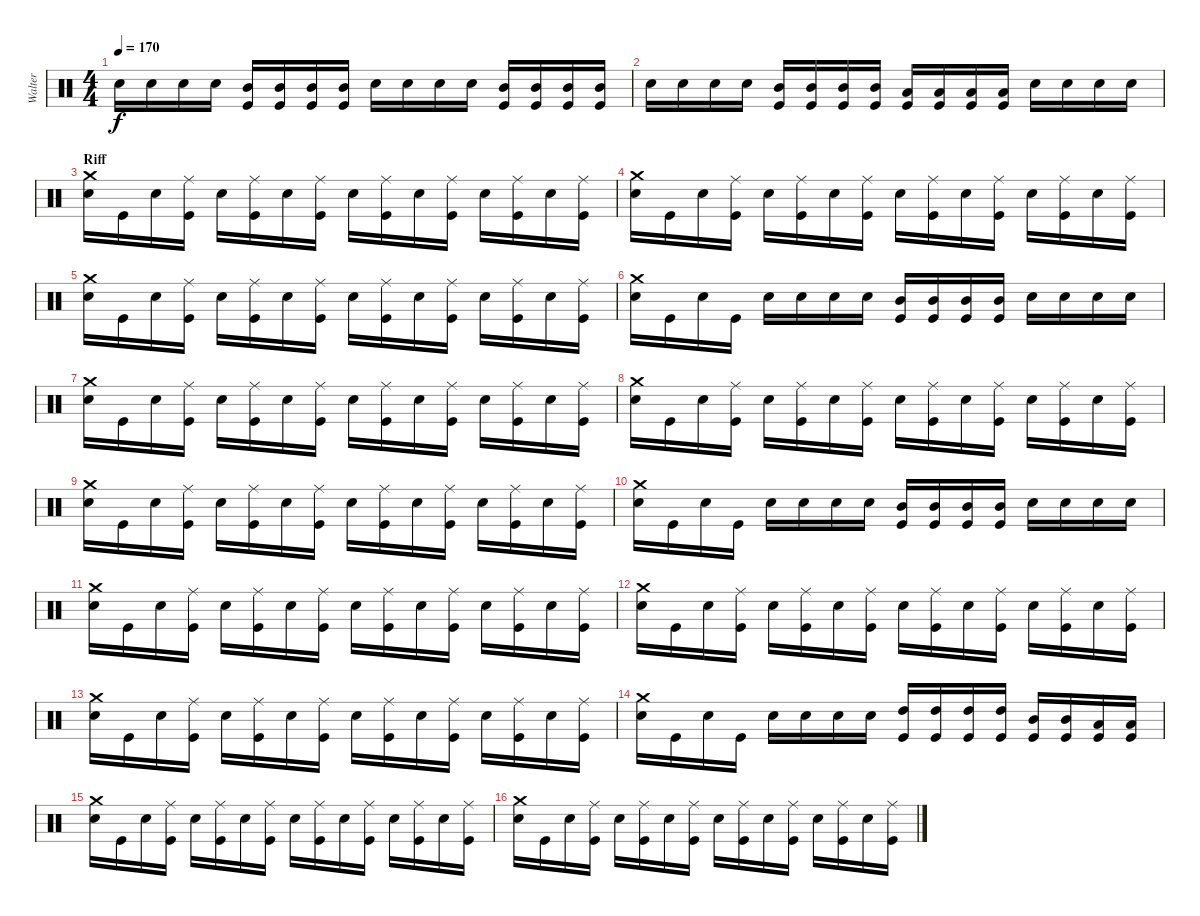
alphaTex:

\track ("Walter" "Walter") {instrument percussion}
\staff {score}
\articulation defaults
\ts (4 4)
\tempo 170
\clef neutral
\ks c "Electric Snare (hit)".16{dy f} "Electric Snare (hit)".16 "Electric Snare (hit)".16 "Electric Snare (hit)".16
("Mid Tom (hit)" "Kick (hit)").16 ("Mid Tom (hit)" "Kick (hit)").16 ("Mid Tom (hit)" "Kick (hit)").16 ("Mid Tom (hit)" "Kick (hit)").16 "Electric Snare (hit)".16 "Electric Snare (hit)".16 "Electric Snare (hit)".16 "Electric Snare (hit)".16 ("Mid Tom (hit)" "Kick (hit)").16 ("Mid Tom (hit)" "Kick (hit)").16 ("Mid Tom (hit)" "Kick (hit)").16 ("Mid Tom (hit)" "Kick (hit)").16 |
"Electric Snare (hit)".16 "Electric Snare (hit)".16 "Electric Snare (hit)".16 "Electric Snare (hit)".16 ("Mid Tom (hit)" "Kick (hit)").16 ("Mid Tom (hit)" "Kick (hit)").16 ("Mid Tom (hit)" "Kick (hit)").16 ("Mid Tom (hit)" "Kick (hit)").16 ("Low Tom (hit)" "Kick (hit)").16 ("Low Tom (hit)" "Kick (hit)").16 ("Low Tom (hit)" "Kick (hit)").16 ("Low Tom (hit)" "Kick (hit)").16 "Electric Snare (hit)".16 "Electric Snare (hit)".16 "Electric Snare (hit)".16 "Electric Snare (hit)".16 |
\section ("" "Riff")
("Crash medium (hit)" "Electric Snare (hit)").16 "Kick (hit)".16 "Electric Snare (hit)".16 ("Ride (middle)" "Kick (hit)").16 "Electric Snare (hit)".16 ("Ride (middle)" "Kick (hit)").16 "Electric Snare (hit)".16 ("Ride (middle)" "Kick (hit)").16 "Electric Snare (hit)".16 ("Ride (middle)" "Kick (hit)").16 "Electric Snare (hit)".16 ("Ride (middle)" "Kick (hit)").16 "Electric Snare (hit)".16 ("Ride (middle)" "Kick (hit)").16 "Electric Snare (hit)".16 ("Ride (middle)" "Kick (hit)").16 |
("Crash medium (hit)" "Electric Snare (hit)").16 "Kick (hit)".16 "Electric Snare (hit)".16 ("Ride (middle)" "Kick (hit)").16 "Electric Snare (hit)".16 ("Ride (middle)" "Kick (hit)").16 "Electric Snare (hit)".16 ("Ride (middle)" "Kick (hit)").16 "Electric Snare (hit)".16 ("Ride (middle)" "Kick (hit)").16 "Electric Snare (hit)".16 ("Ride (middle)" "Kick (hit)").16 "Electric Snare (hit)".16 ("Ride (middle)" "Kick (hit)").16 "Electric Snare (hit)".16 ("Ride (middle)" "Kick (hit)").16 |
("Crash medium (hit)" "Electric Snare (hit)").16 "Kick (hit)".16 "Electric Snare (hit)".16 ("Ride (middle)" "Kick (hit)").16 "Electric Snare (hit)".16 ("Ride (middle)" "Kick (hit)").16 "Electric Snare (hit)".16 ("Ride (middle)" "Kick (hit)").16 "Electric Snare (hit)".16 ("Ride (middle)" "Kick (hit)").16 "Electric Snare (hit)".16 ("Ride (middle)" "Kick (hit)").16 "Electric Snare (hit)".16 ("Ride (middle)" "Kick (hit)").16 "Electric Snare (hit)".16 ("Ride (middle)" "Kick (hit)").16 |
("Crash medium (hit)" "Electric Snare (hit)").16 "Kick (hit)".16 "Electric Snare (hit)".16 "Kick (hit)".16 "Electric Snare (hit)".16 "Electric Snare (hit)".16 "Electric Snare (hit)".16 "Electric Snare (hit)".16 ("Mid Tom (hit)" "Kick (hit)").16 ("Mid Tom (hit)" "Kick (hit)").16 ("Mid Tom (hit)" "Kick (hit)").16 ("Mid Tom (hit)" "Kick (hit)").16 "Electric Snare (hit)".16 "Electric Snare (hit)".16 "Electric Snare (hit)".16 "Electric Snare (hit)".16 |
("Crash medium (hit)" "Electric Snare (hit)").16 "Kick (hit)".16 "Electric Snare (hit)".16 ("Ride (middle)" "Kick (hit)").16 "Electric Snare (hit)".16 ("Ride (middle)" "Kick (hit)").16 "Electric Snare (hit)".16 ("Ride (middle)" "Kick (hit)").16 "Electric Snare (hit)".16 ("Ride (middle)" "Kick (hit)").16 "Electric Snare (hit)".16 ("Ride (middle)" "Kick (hit)").16 "Electric Snare (hit)".16 ("Ride (middle)" "Kick (hit)").16 "Electric Snare (hit)".16 ("Ride (middle)" "Kick (hit)").16 |
("Crash medium (hit)" "Electric Snare (hit)").16 "Kick (hit)".16 "Electric Snare (hit)".16 ("Ride (middle)" "Kick (hit)").16 "Electric Snare (hit)".16 ("Ride (middle)" "Kick (hit)").16 "Electric Snare (hit)".16 ("Ride (middle)" "Kick (hit)").16 "Electric Snare (hit)".16 ("Ride (middle)" "Kick (hit)").16 "Electric Snare (hit)".16 ("Ride (middle)" "Kick (hit)").16 "Electric Snare (hit)".16 ("Ride (middle)" "Kick (hit)").16 "Electric Snare (hit)".16 ("Ride (middle)" "Kick (hit)").16 |
("Crash medium (hit)" "Electric Snare (hit)").16 "Kick (hit)".16 "Electric Snare (hit)".16 ("Ride (middle)" "Kick (hit)").16 "Electric Snare (hit)".16 ("Ride (middle)" "Kick (hit)").16 "Electric Snare (hit)".16 ("Ride (middle)" "Kick (hit)").16 "Electric Snare (hit)".16 ("Ride (middle)" "Kick (hit)").16 "Electric Snare (hit)".16 ("Ride (middle)" "Kick (hit)").16 "Electric Snare (hit)".16 ("Ride (middle)" "Kick (hit)").16 "Electric Snare (hit)".16 ("Ride (middle)" "Kick (hit)").16 |
("Crash medium (hit)" "Electric Snare (hit)").16 "Kick (hit)".16 "Electric Snare (hit)".16 "Kick (hit)".16 "Electric Snare (hit)".16 "Electric Snare (hit)".16 "Electric Snare (hit)".16 "Electric Snare (hit)".16 ("Mid Tom (hit)" "Kick (hit)").16 ("Mid Tom (hit)" "Kick (hit)").16 ("Mid Tom (hit)" "Kick (hit)").16 ("Mid Tom (hit)" "Kick (hit)").16 "Electric Snare (hit)".16 "Electric Snare (hit)".16 "Electric Snare (hit)".16 "Electric Snare (hit)".16 |
("Crash medium (hit)" "Electric Snare (hit)").16 "Kick (hit)".16 "Electric Snare (hit)".16 ("Ride (middle)" "Kick (hit)").16 "Electric Snare (hit)".16 ("Ride (middle)" "Kick (hit)").16 "Electric Snare (hit)".16 ("Ride (middle)" "Kick (hit)").16 "Electric Snare (hit)".16 ("Ride (middle)" "Kick (hit)").16 "Electric Snare (hit)".16 ("Ride (middle)" "Kick (hit)").16 "Electric Snare (hit)".16 ("Ride (middle)" "Kick (hit)").16 "Electric Snare (hit)".16 ("Ride (middle)" "Kick (hit)").16 |
("Crash medium (hit)" "Electric Snare (hit)").16 "Kick (hit)".16 "Electric Snare (hit)".16 ("Ride (middle)" "Kick (hit)").16 "Electric Snare (hit)".16 ("Ride (middle)" "Kick (hit)").16 "Electric Snare (hit)".16 ("Ride (middle)" "Kick (hit)").16 "Electric Snare (hit)".16 ("Ride (middle)" "Kick (hit)").16 "Electric Snare (hit)".16 ("Ride (middle)" "Kick (hit)").16 "Electric Snare (hit)".16 ("Ride (middle)" "Kick (hit)").16 "Electric Snare (hit)".16 ("Ride (middle)" "Kick (hit)").16 |
("Crash medium (hit)" "Electric Snare (hit)").16 "Kick (hit)".16 "Electric Snare (hit)".16 ("Ride (middle)" "Kick (hit)").16 "Electric Snare (hit)".16 ("Ride (middle)" "Kick (hit)").16 "Electric Snare (hit)".16 ("Ride (middle)" "Kick (hit)").16 "Electric Snare (hit)".16 ("Ride (middle)" "Kick (hit)").16 "Electric Snare (hit)".16 ("Ride (middle)" "Kick (hit)").16 "Electric Snare (hit)".16 ("Ride (middle)" "Kick (hit)").16 "Electric Snare (hit)".16 ("Ride (middle)" "Kick (hit)").16 |
("Crash medium (hit)" "Electric Snare (hit)").16 "Kick (hit)".16 "Electric Snare (hit)".16 "Kick (hit)".16 "Electric Snare (hit)".16 "Electric Snare (hit)".16 "Electric Snare (hit)".16 "Electric Snare (hit)".16 ("High Tom (hit)" "Kick (hit)").16 ("High Tom (hit)" "Kick (hit)").16 ("High Tom (hit)" "Kick (hit)").16 ("High Tom (hit)" "Kick (hit)").16 ("Mid Tom (hit)" "Kick (hit)").16 ("Mid Tom (hit)" "Kick (hit)").16 ("Low Tom (hit)" "Kick (hit)").16 ("Low Tom (hit)" "Kick (hit)").16 |
("Crash medium (hit)" "Electric Snare (hit)").16 "Kick (hit)".16 "Electric Snare (hit)".16 ("Ride (middle)" "Kick (hit)").16 "Electric Snare (hit)".16 ("Ride (middle)" "Kick (hit)").16 "Electric Snare (hit)".16 ("Ride (middle)" "Kick (hit)").16 "Electric Snare (hit)".16 ("Ride (middle)" "Kick (hit)").16 "Electric Snare (hit)".16 ("Ride (middle)" "Kick (hit)").16 "Electric Snare (hit)".16 ("Ride (middle)" "Kick (hit)").16 "Electric Snare (hit)".16 ("Ride (middle)" "Kick (hit)").16 |
("Crash medium (hit)" "Electric Snare (hit)").16 "Kick (hit)".16 "Electric Snare (hit)".16 ("Ride (middle)" "Kick (hit)").16 "Electric Snare (hit)".16 ("Ride (middle)" "Kick (hit)").16 "Electric Snare (hit)".16 ("Ride (middle)" "Kick (hit)").16 "Electric Snare (hit)".16 ("Ride (middle)" "Kick (hit)").16 "Electric Snare (hit)".16 ("Ride (middle)" "Kick (hit)").16 "Electric Snare (hit)".16 ("Ride (middle)" "Kick (hit)").16 "Electric Snare (hit)".16 ("Ride (middle)" "Kick (hit)").16
